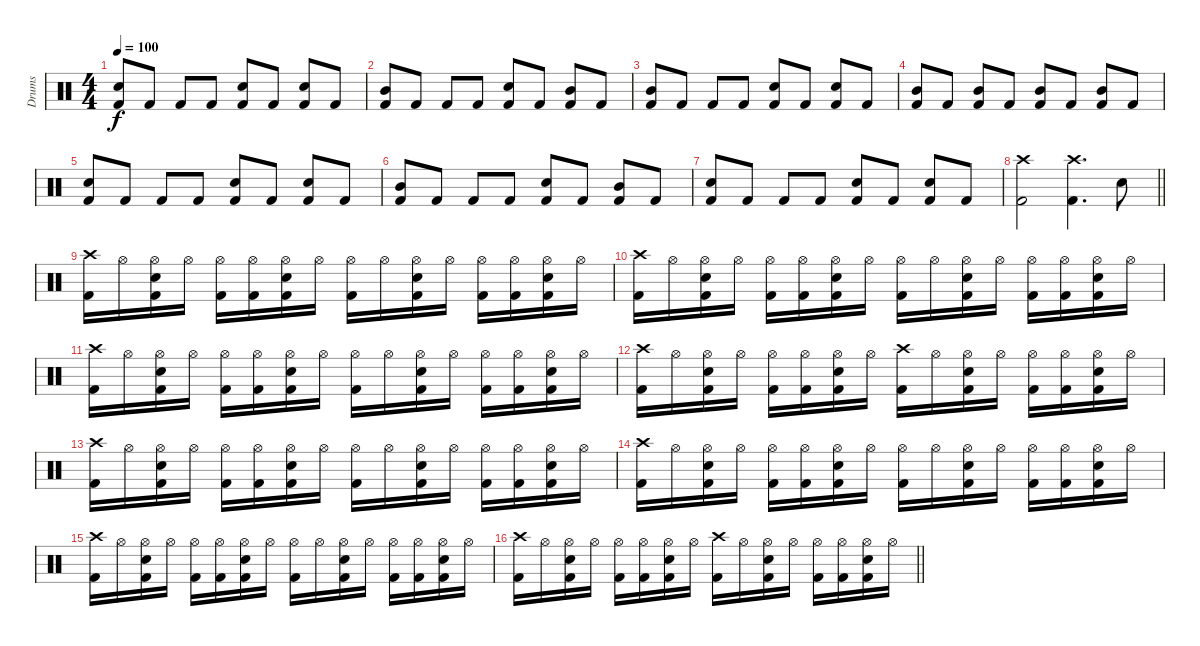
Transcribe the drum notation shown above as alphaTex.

\track ("Drums" "Drums") {instrument percussion}
\staff {score}
\articulation defaults
\ts (4 4)
\tempo 100
\clef neutral
\ks c
("Kick (hit) 2" "Snare (hit) 2").8{dy f} "Kick (hit) 2".8 "Kick (hit) 2".8 "Kick (hit) 2".8 ("Kick (hit) 2" "Snare (hit) 2").8 "Kick (hit) 2".8 ("Kick (hit) 2" "Snare (hit) 2").8 "Kick (hit) 2".8 |
("Kick (hit) 2" "Mid Tom (hit)").8 "Kick (hit) 2".8 "Kick (hit) 2".8 "Kick (hit) 2".8 ("Kick (hit) 2" "Snare (hit) 2").8 "Kick (hit) 2".8 ("Kick (hit) 2" "Mid Tom (hit)").8 "Kick (hit) 2".8 |
("Kick (hit) 2" "Mid Tom (hit)").8 "Kick (hit) 2".8 "Kick (hit) 2".8 "Kick (hit) 2".8 ("Kick (hit) 2" "Snare (hit) 2").8 "Kick (hit) 2".8 ("Kick (hit) 2" "Snare (hit) 2").8 "Kick (hit) 2".8 |
("Kick (hit) 2" "Mid Tom (hit)").8 "Kick (hit) 2".8 ("Kick (hit) 2" "Mid Tom (hit)").8 "Kick (hit) 2".8 ("Kick (hit) 2" "Mid Tom (hit)").8 "Kick (hit) 2".8 ("Kick (hit) 2" "Mid Tom (hit)").8 "Kick (hit) 2".8 |
("Kick (hit) 2" "Snare (hit) 2").8 "Kick (hit) 2".8 "Kick (hit) 2".8 "Kick (hit) 2".8 ("Kick (hit) 2" "Snare (hit) 2").8 "Kick (hit) 2".8 ("Kick (hit) 2" "Snare (hit) 2").8 "Kick (hit) 2".8 |
("Kick (hit) 2" "Mid Tom (hit)").8 "Kick (hit) 2".8 "Kick (hit) 2".8 "Kick (hit) 2".8 ("Kick (hit) 2" "Snare (hit) 2").8 "Kick (hit) 2".8 ("Kick (hit) 2" "Mid Tom (hit)").8 "Kick (hit) 2".8 |
("Kick (hit) 2" "Snare (hit) 2").8 "Kick (hit) 2".8 "Kick (hit) 2".8 "Kick (hit) 2".8 ("Kick (hit) 2" "Snare (hit) 2").8 "Kick (hit) 2".8 ("Kick (hit) 2" "Snare (hit) 2").8 "Kick (hit) 2".8 |
\barLineRight lightlight
("Kick (hit) 2" "Crash high (hit)").2 ("Kick (hit) 2" "Crash high (hit)").4{d} "Snare (hit) 2".8 |
("Kick (hit) 2" "Crash high (hit)").16 "Hi-Hat (open)".16 ("Kick (hit) 2" "Snare (hit) 2" "Hi-Hat (open)").16 "Hi-Hat (open)".16 ("Kick (hit) 2" "Hi-Hat (open)").16 ("Kick (hit) 2" "Hi-Hat (open)").16 ("Kick (hit) 2" "Snare (hit) 2" "Hi-Hat (open)").16 "Hi-Hat (open)".16 ("Kick (hit) 2" "Hi-Hat (open)").16 "Hi-Hat (open)".16 ("Kick (hit) 2" "Snare (hit) 2" "Hi-Hat (open)").16 "Hi-Hat (open)".16 ("Kick (hit) 2" "Hi-Hat (open)").16 ("Kick (hit) 2" "Hi-Hat (open)").16 ("Kick (hit) 2" "Snare (hit) 2" "Hi-Hat (open)").16 "Hi-Hat (open)".16 |
("Kick (hit) 2" "Crash high (hit)").16 "Hi-Hat (open)".16 ("Kick (hit) 2" "Snare (hit) 2" "Hi-Hat (open)").16 "Hi-Hat (open)".16 ("Kick (hit) 2" "Hi-Hat (open)").16 ("Kick (hit) 2" "Hi-Hat (open)").16 ("Kick (hit) 2" "Snare (hit) 2" "Hi-Hat (open)").16 "Hi-Hat (open)".16 ("Kick (hit) 2" "Hi-Hat (open)").16 "Hi-Hat (open)".16 ("Kick (hit) 2" "Snare (hit) 2" "Hi-Hat (open)").16 "Hi-Hat (open)".16 ("Kick (hit) 2" "Hi-Hat (open)").16 ("Kick (hit) 2" "Hi-Hat (open)").16 ("Kick (hit) 2" "Snare (hit) 2" "Hi-Hat (open)").16 "Hi-Hat (open)".16 |
("Kick (hit) 2" "Crash high (hit)").16 "Hi-Hat (open)".16 ("Kick (hit) 2" "Snare (hit) 2" "Hi-Hat (open)").16 "Hi-Hat (open)".16 ("Kick (hit) 2" "Hi-Hat (open)").16 ("Kick (hit) 2" "Hi-Hat (open)").16 ("Kick (hit) 2" "Snare (hit) 2" "Hi-Hat (open)").16 "Hi-Hat (open)".16 ("Kick (hit) 2" "Hi-Hat (open)").16 "Hi-Hat (open)".16 ("Kick (hit) 2" "Snare (hit) 2" "Hi-Hat (open)").16 "Hi-Hat (open)".16 ("Kick (hit) 2" "Hi-Hat (open)").16 ("Kick (hit) 2" "Hi-Hat (open)").16 ("Kick (hit) 2" "Snare (hit) 2" "Hi-Hat (open)").16 "Hi-Hat (open)".16 |
("Kick (hit) 2" "Crash high (hit)").16 "Hi-Hat (open)".16 ("Kick (hit) 2" "Snare (hit) 2" "Hi-Hat (open)").16 "Hi-Hat (open)".16 ("Kick (hit) 2" "Hi-Hat (open)").16 ("Kick (hit) 2" "Hi-Hat (open)").16 ("Kick (hit) 2" "Snare (hit) 2" "Hi-Hat (open)").16 "Hi-Hat (open)".16 ("Kick (hit) 2" "Crash high (hit)").16 "Hi-Hat (open)".16 ("Kick (hit) 2" "Snare (hit) 2" "Hi-Hat (open)").16 "Hi-Hat (open)".16 ("Kick (hit) 2" "Hi-Hat (open)").16 ("Kick (hit) 2" "Hi-Hat (open)").16 ("Kick (hit) 2" "Snare (hit) 2" "Hi-Hat (open)").16 "Hi-Hat (open)".16 |
("Kick (hit) 2" "Crash high (hit)").16 "Hi-Hat (open)".16 ("Kick (hit) 2" "Snare (hit) 2" "Hi-Hat (open)").16 "Hi-Hat (open)".16 ("Kick (hit) 2" "Hi-Hat (open)").16 ("Kick (hit) 2" "Hi-Hat (open)").16 ("Kick (hit) 2" "Snare (hit) 2" "Hi-Hat (open)").16 "Hi-Hat (open)".16 ("Kick (hit) 2" "Hi-Hat (open)").16 "Hi-Hat (open)".16 ("Kick (hit) 2" "Snare (hit) 2" "Hi-Hat (open)").16 "Hi-Hat (open)".16 ("Kick (hit) 2" "Hi-Hat (open)").16 ("Kick (hit) 2" "Hi-Hat (open)").16 ("Kick (hit) 2" "Snare (hit) 2" "Hi-Hat (open)").16 "Hi-Hat (open)".16 |
("Kick (hit) 2" "Crash high (hit)").16 "Hi-Hat (open)".16 ("Kick (hit) 2" "Snare (hit) 2" "Hi-Hat (open)").16 "Hi-Hat (open)".16 ("Kick (hit) 2" "Hi-Hat (open)").16 ("Kick (hit) 2" "Hi-Hat (open)").16 ("Kick (hit) 2" "Snare (hit) 2" "Hi-Hat (open)").16 "Hi-Hat (open)".16 ("Kick (hit) 2" "Hi-Hat (open)").16 "Hi-Hat (open)".16 ("Kick (hit) 2" "Snare (hit) 2" "Hi-Hat (open)").16 "Hi-Hat (open)".16 ("Kick (hit) 2" "Hi-Hat (open)").16 ("Kick (hit) 2" "Hi-Hat (open)").16 ("Kick (hit) 2" "Snare (hit) 2" "Hi-Hat (open)").16 "Hi-Hat (open)".16 |
("Kick (hit) 2" "Crash high (hit)").16 "Hi-Hat (open)".16 ("Kick (hit) 2" "Snare (hit) 2" "Hi-Hat (open)").16 "Hi-Hat (open)".16 ("Kick (hit) 2" "Hi-Hat (open)").16 ("Kick (hit) 2" "Hi-Hat (open)").16 ("Kick (hit) 2" "Snare (hit) 2" "Hi-Hat (open)").16 "Hi-Hat (open)".16 ("Kick (hit) 2" "Hi-Hat (open)").16 "Hi-Hat (open)".16 ("Kick (hit) 2" "Snare (hit) 2" "Hi-Hat (open)").16 "Hi-Hat (open)".16 ("Kick (hit) 2" "Hi-Hat (open)").16 ("Kick (hit) 2" "Hi-Hat (open)").16 ("Kick (hit) 2" "Snare (hit) 2" "Hi-Hat (open)").16 "Hi-Hat (open)".16 |
\barLineRight lightlight
("Kick (hit) 2" "Crash high (hit)").16 "Hi-Hat (open)".16 ("Kick (hit) 2" "Snare (hit) 2" "Hi-Hat (open)").16 "Hi-Hat (open)".16 ("Kick (hit) 2" "Hi-Hat (open)").16 ("Kick (hit) 2" "Hi-Hat (open)").16 ("Kick (hit) 2" "Snare (hit) 2" "Hi-Hat (open)").16 "Hi-Hat (open)".16 ("Kick (hit) 2" "Crash high (hit)").16 "Hi-Hat (open)".16 ("Kick (hit) 2" "Snare (hit) 2" "Hi-Hat (open)").16 "Hi-Hat (open)".16 ("Kick (hit) 2" "Hi-Hat (open)").16 ("Kick (hit) 2" "Hi-Hat (open)").16 ("Kick (hit) 2" "Snare (hit) 2" "Hi-Hat (open)").16 "Hi-Hat (open)".16
